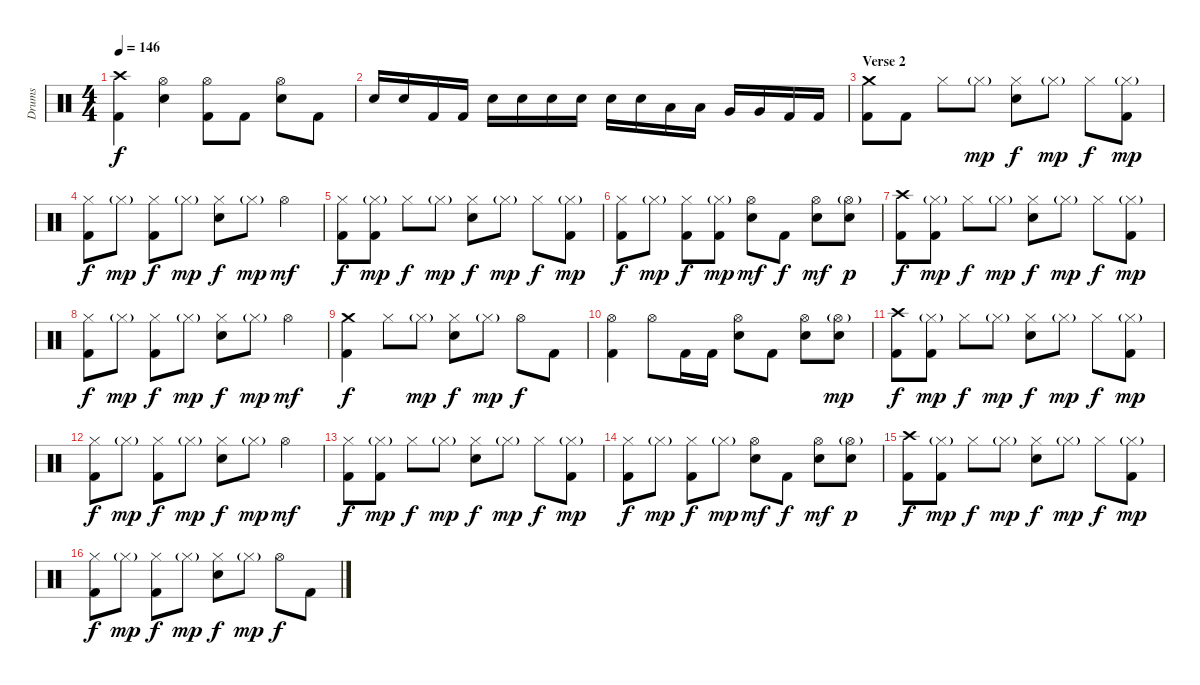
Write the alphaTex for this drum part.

\track ("Drums" "Drums") {instrument percussion}
\staff {score}
\articulation defaults
\ts (4 4)
\tempo 146
\clef neutral
\ks c
("Crash high (hit)" "Kick (hit) 2").4{dy f} ("Hi-Hat (open)" "Snare (hit) 2").4 ("Hi-Hat (open)" "Kick (hit) 2").8 "Kick (hit) 2".8 ("Hi-Hat (open)" "Snare (hit) 2").8 "Kick (hit) 2".8 |
"Snare (hit) 2".16 "Snare (hit) 2".16 "Kick (hit) 2".16 "Kick (hit) 2".16 "Snare (hit) 2".16 "Snare (hit) 2".16 "Snare (hit) 2".16 "Snare (hit) 2".16 "Snare (hit) 2".16 "Snare (hit) 2".16 "Low Tom (hit)".16 "Low Tom (hit)".16 "Very Low Tom (hit)".16 "Very Low Tom (hit)".16 "Kick (hit) 2".16 "Kick (hit) 2".16 |
\section ("" "Verse 2")
("Crash medium (hit)" "Kick (hit) 2").8 "Kick (hit) 2".8 "Hi-Hat (closed)".8 "Hi-Hat (closed)"{g}.8{dy mp} ("Hi-Hat (closed)" "Snare (hit) 2").8{dy f} "Hi-Hat (closed)"{g}.8{dy mp} "Hi-Hat (closed)".8{dy f} ("Hi-Hat (closed)"{g} "Kick (hit) 2").8{dy mp} |
("Hi-Hat (closed)" "Kick (hit) 2").8{dy f} "Hi-Hat (closed)"{g}.8{dy mp} ("Hi-Hat (closed)" "Kick (hit) 2").8{dy f} "Hi-Hat (closed)"{g}.8{dy mp} ("Hi-Hat (closed)" "Snare (hit) 2").8{dy f} "Hi-Hat (closed)"{g}.8{dy mp} "Hi-Hat (open)".4{dy mf} |
("Hi-Hat (closed)" "Kick (hit) 2").8{dy f} ("Hi-Hat (closed)"{g} "Kick (hit) 2").8{dy mp} "Hi-Hat (closed)".8{dy f} "Hi-Hat (closed)"{g}.8{dy mp} ("Hi-Hat (closed)" "Snare (hit) 2").8{dy f} "Hi-Hat (closed)"{g}.8{dy mp} "Hi-Hat (closed)".8{dy f} ("Hi-Hat (closed)"{g} "Kick (hit) 2").8{dy mp} |
("Hi-Hat (closed)" "Kick (hit) 2").8{dy f} "Hi-Hat (closed)"{g}.8{dy mp} ("Hi-Hat (closed)" "Kick (hit) 2").8{dy f} ("Hi-Hat (closed)"{g} "Kick (hit) 2").8{dy mp} ("Hi-Hat (open)" "Snare (hit) 2").8{dy mf} "Kick (hit) 2".8{dy f} ("Hi-Hat (open)" "Snare (hit) 2").8{dy mf} ("Hi-Hat (open)"{g} "Snare (hit) 2").8{dy p} |
("Crash high (hit)" "Kick (hit) 2").8{dy f} ("Hi-Hat (closed)"{g} "Kick (hit) 2").8{dy mp} "Hi-Hat (closed)".8{dy f} "Hi-Hat (closed)"{g}.8{dy mp} ("Hi-Hat (closed)" "Snare (hit) 2").8{dy f} "Hi-Hat (closed)"{g}.8{dy mp} "Hi-Hat (closed)".8{dy f} ("Hi-Hat (closed)"{g} "Kick (hit) 2").8{dy mp} |
("Hi-Hat (closed)" "Kick (hit) 2").8{dy f} "Hi-Hat (closed)"{g}.8{dy mp} ("Hi-Hat (closed)" "Kick (hit) 2").8{dy f} "Hi-Hat (closed)"{g}.8{dy mp} ("Hi-Hat (closed)" "Snare (hit) 2").8{dy f} "Hi-Hat (closed)"{g}.8{dy mp} "Hi-Hat (open)".4{dy mf} |
("Crash medium (hit)" "Kick (hit) 2").4{dy f} "Hi-Hat (closed)".8 "Hi-Hat (closed)"{g}.8{dy mp} ("Hi-Hat (closed)" "Snare (hit) 2").8{dy f} "Hi-Hat (closed)"{g}.8{dy mp} "Hi-Hat (open)".8{dy f} "Kick (hit) 2".8 |
("Hi-Hat (open)" "Kick (hit) 2").4 "Hi-Hat (open)".8 "Kick (hit) 2".16 "Kick (hit) 2".16 ("Hi-Hat (open)" "Snare (hit) 2").8 "Kick (hit) 2".8 ("Hi-Hat (open)" "Snare (hit) 2").8 ("Hi-Hat (open)"{g} "Snare (hit) 2").8{dy mp} |
("Crash high (hit)" "Kick (hit) 2").8{dy f} ("Hi-Hat (closed)"{g} "Kick (hit) 2").8{dy mp} "Hi-Hat (closed)".8{dy f} "Hi-Hat (closed)"{g}.8{dy mp} ("Hi-Hat (closed)" "Snare (hit) 2").8{dy f} "Hi-Hat (closed)"{g}.8{dy mp} "Hi-Hat (closed)".8{dy f} ("Hi-Hat (closed)"{g} "Kick (hit) 2").8{dy mp} |
("Hi-Hat (closed)" "Kick (hit) 2").8{dy f} "Hi-Hat (closed)"{g}.8{dy mp} ("Hi-Hat (closed)" "Kick (hit) 2").8{dy f} "Hi-Hat (closed)"{g}.8{dy mp} ("Hi-Hat (closed)" "Snare (hit) 2").8{dy f} "Hi-Hat (closed)"{g}.8{dy mp} "Hi-Hat (open)".4{dy mf} |
("Hi-Hat (closed)" "Kick (hit) 2").8{dy f} ("Hi-Hat (closed)"{g} "Kick (hit) 2").8{dy mp} "Hi-Hat (closed)".8{dy f} "Hi-Hat (closed)"{g}.8{dy mp} ("Hi-Hat (closed)" "Snare (hit) 2").8{dy f} "Hi-Hat (closed)"{g}.8{dy mp} "Hi-Hat (closed)".8{dy f} ("Hi-Hat (closed)"{g} "Kick (hit) 2").8{dy mp} |
("Hi-Hat (closed)" "Kick (hit) 2").8{dy f} "Hi-Hat (closed)"{g}.8{dy mp} ("Hi-Hat (closed)" "Kick (hit) 2").8{dy f} "Hi-Hat (closed)"{g}.8{dy mp} ("Hi-Hat (open)" "Snare (hit) 2").8{dy mf} "Kick (hit) 2".8{dy f} ("Hi-Hat (open)" "Snare (hit) 2").8{dy mf} ("Hi-Hat (open)"{g} "Snare (hit) 2").8{dy p} |
("Crash high (hit)" "Kick (hit) 2").8{dy f} ("Hi-Hat (closed)"{g} "Kick (hit) 2").8{dy mp} "Hi-Hat (closed)".8{dy f} "Hi-Hat (closed)"{g}.8{dy mp} ("Hi-Hat (closed)" "Snare (hit) 2").8{dy f} "Hi-Hat (closed)"{g}.8{dy mp} "Hi-Hat (closed)".8{dy f} ("Hi-Hat (closed)"{g} "Kick (hit) 2").8{dy mp} |
("Hi-Hat (closed)" "Kick (hit) 2").8{dy f} "Hi-Hat (closed)"{g}.8{dy mp} ("Hi-Hat (closed)" "Kick (hit) 2").8{dy f} "Hi-Hat (closed)"{g}.8{dy mp} ("Hi-Hat (closed)" "Snare (hit) 2").8{dy f} "Hi-Hat (closed)"{g}.8{dy mp} "Hi-Hat (open)".8{dy f} "Kick (hit) 2".8
